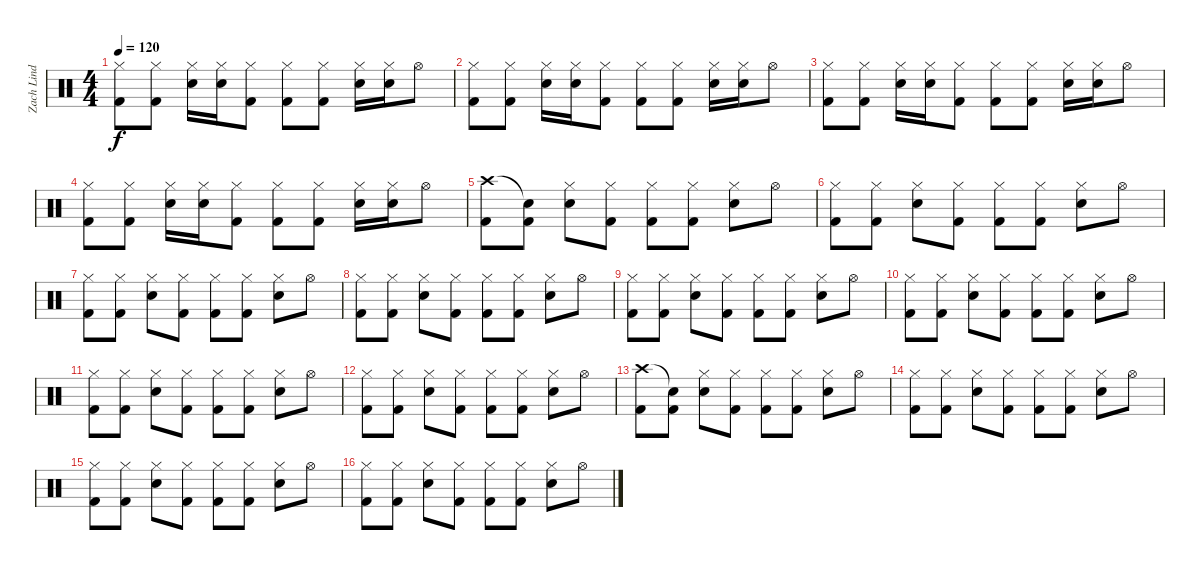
\track ("Zach Lind (Drums)" "Zach Lind ") {instrument percussion}
\staff {score}
\articulation defaults
\ts (4 4)
\tempo 120
\clef neutral
\ks c
("Hi-Hat (closed)" "Kick (hit) 2").8{dy f} ("Hi-Hat (closed)" "Kick (hit) 2").8 ("Hi-Hat (closed)" "Electric Snare (hit)").16 ("Hi-Hat (closed)" "Electric Snare (hit)").16 ("Hi-Hat (closed)" "Kick (hit) 2").8 ("Hi-Hat (closed)" "Kick (hit) 2").8 ("Hi-Hat (closed)" "Kick (hit) 2").8 ("Hi-Hat (closed)" "Electric Snare (hit)").16 ("Hi-Hat (closed)" "Electric Snare (hit)").16 "Hi-Hat (open)".8 |
("Hi-Hat (closed)" "Kick (hit) 2").8 ("Hi-Hat (closed)" "Kick (hit) 2").8 ("Hi-Hat (closed)" "Electric Snare (hit)").16 ("Hi-Hat (closed)" "Electric Snare (hit)").16 ("Hi-Hat (closed)" "Kick (hit) 2").8 ("Hi-Hat (closed)" "Kick (hit) 2").8 ("Hi-Hat (closed)" "Kick (hit) 2").8 ("Hi-Hat (closed)" "Electric Snare (hit)").16 ("Hi-Hat (closed)" "Electric Snare (hit)").16 "Hi-Hat (open)".8 |
("Hi-Hat (closed)" "Kick (hit) 2").8 ("Hi-Hat (closed)" "Kick (hit) 2").8 ("Hi-Hat (closed)" "Electric Snare (hit)").16 ("Hi-Hat (closed)" "Electric Snare (hit)").16 ("Hi-Hat (closed)" "Kick (hit) 2").8 ("Hi-Hat (closed)" "Kick (hit) 2").8 ("Hi-Hat (closed)" "Kick (hit) 2").8 ("Hi-Hat (closed)" "Electric Snare (hit)").16 ("Hi-Hat (closed)" "Electric Snare (hit)").16 "Hi-Hat (open)".8 |
("Hi-Hat (closed)" "Kick (hit) 2").8 ("Hi-Hat (closed)" "Kick (hit) 2").8 ("Hi-Hat (closed)" "Electric Snare (hit)").16 ("Hi-Hat (closed)" "Electric Snare (hit)").16 ("Hi-Hat (closed)" "Kick (hit) 2").8 ("Hi-Hat (closed)" "Kick (hit) 2").8 ("Hi-Hat (closed)" "Kick (hit) 2").8 ("Hi-Hat (closed)" "Electric Snare (hit)").16 ("Hi-Hat (closed)" "Electric Snare (hit)").16 "Hi-Hat (open)".8 |
("Crash high (hit)" "Kick (hit) 2").8 ("Snare (hit)"{t} "Kick (hit) 2").8 ("Hi-Hat (closed)" "Electric Snare (hit)").8 ("Hi-Hat (closed)" "Kick (hit) 2").8 ("Hi-Hat (closed)" "Kick (hit) 2").8 ("Hi-Hat (closed)" "Kick (hit) 2").8 ("Hi-Hat (closed)" "Electric Snare (hit)").8 "Hi-Hat (open)".8 |
("Hi-Hat (closed)" "Kick (hit) 2").8 ("Hi-Hat (closed)" "Kick (hit) 2").8 ("Hi-Hat (closed)" "Electric Snare (hit)").8 ("Hi-Hat (closed)" "Kick (hit) 2").8 ("Hi-Hat (closed)" "Kick (hit) 2").8 ("Hi-Hat (closed)" "Kick (hit) 2").8 ("Hi-Hat (closed)" "Electric Snare (hit)").8 "Hi-Hat (open)".8 |
("Hi-Hat (closed)" "Kick (hit) 2").8 ("Hi-Hat (closed)" "Kick (hit) 2").8 ("Hi-Hat (closed)" "Electric Snare (hit)").8 ("Hi-Hat (closed)" "Kick (hit) 2").8 ("Hi-Hat (closed)" "Kick (hit) 2").8 ("Hi-Hat (closed)" "Kick (hit) 2").8 ("Hi-Hat (closed)" "Electric Snare (hit)").8 "Hi-Hat (open)".8 |
("Hi-Hat (closed)" "Kick (hit) 2").8 ("Hi-Hat (closed)" "Kick (hit) 2").8 ("Hi-Hat (closed)" "Electric Snare (hit)").8 ("Hi-Hat (closed)" "Kick (hit) 2").8 ("Hi-Hat (closed)" "Kick (hit) 2").8 ("Hi-Hat (closed)" "Kick (hit) 2").8 ("Hi-Hat (closed)" "Electric Snare (hit)").8 "Hi-Hat (open)".8 |
("Hi-Hat (closed)" "Kick (hit) 2").8 ("Hi-Hat (closed)" "Kick (hit) 2").8 ("Hi-Hat (closed)" "Electric Snare (hit)").8 ("Hi-Hat (closed)" "Kick (hit) 2").8 ("Hi-Hat (closed)" "Kick (hit) 2").8 ("Hi-Hat (closed)" "Kick (hit) 2").8 ("Hi-Hat (closed)" "Electric Snare (hit)").8 "Hi-Hat (open)".8 |
("Hi-Hat (closed)" "Kick (hit) 2").8 ("Hi-Hat (closed)" "Kick (hit) 2").8 ("Hi-Hat (closed)" "Electric Snare (hit)").8 ("Hi-Hat (closed)" "Kick (hit) 2").8 ("Hi-Hat (closed)" "Kick (hit) 2").8 ("Hi-Hat (closed)" "Kick (hit) 2").8 ("Hi-Hat (closed)" "Electric Snare (hit)").8 "Hi-Hat (open)".8 |
("Hi-Hat (closed)" "Kick (hit) 2").8 ("Hi-Hat (closed)" "Kick (hit) 2").8 ("Hi-Hat (closed)" "Electric Snare (hit)").8 ("Hi-Hat (closed)" "Kick (hit) 2").8 ("Hi-Hat (closed)" "Kick (hit) 2").8 ("Hi-Hat (closed)" "Kick (hit) 2").8 ("Hi-Hat (closed)" "Electric Snare (hit)").8 "Hi-Hat (open)".8 |
("Hi-Hat (closed)" "Kick (hit) 2").8 ("Hi-Hat (closed)" "Kick (hit) 2").8 ("Hi-Hat (closed)" "Electric Snare (hit)").8 ("Hi-Hat (closed)" "Kick (hit) 2").8 ("Hi-Hat (closed)" "Kick (hit) 2").8 ("Hi-Hat (closed)" "Kick (hit) 2").8 ("Hi-Hat (closed)" "Electric Snare (hit)").8 "Hi-Hat (open)".8 |
("Crash high (hit)" "Kick (hit) 2").8 ("Snare (hit)"{t} "Kick (hit) 2").8 ("Hi-Hat (closed)" "Electric Snare (hit)").8 ("Hi-Hat (closed)" "Kick (hit) 2").8 ("Hi-Hat (closed)" "Kick (hit) 2").8 ("Hi-Hat (closed)" "Kick (hit) 2").8 ("Hi-Hat (closed)" "Electric Snare (hit)").8 "Hi-Hat (open)".8 |
("Hi-Hat (closed)" "Kick (hit) 2").8 ("Hi-Hat (closed)" "Kick (hit) 2").8 ("Hi-Hat (closed)" "Electric Snare (hit)").8 ("Hi-Hat (closed)" "Kick (hit) 2").8 ("Hi-Hat (closed)" "Kick (hit) 2").8 ("Hi-Hat (closed)" "Kick (hit) 2").8 ("Hi-Hat (closed)" "Electric Snare (hit)").8 "Hi-Hat (open)".8 |
("Hi-Hat (closed)" "Kick (hit) 2").8 ("Hi-Hat (closed)" "Kick (hit) 2").8 ("Hi-Hat (closed)" "Electric Snare (hit)").8 ("Hi-Hat (closed)" "Kick (hit) 2").8 ("Hi-Hat (closed)" "Kick (hit) 2").8 ("Hi-Hat (closed)" "Kick (hit) 2").8 ("Hi-Hat (closed)" "Electric Snare (hit)").8 "Hi-Hat (open)".8 |
("Hi-Hat (closed)" "Kick (hit) 2").8 ("Hi-Hat (closed)" "Kick (hit) 2").8 ("Hi-Hat (closed)" "Electric Snare (hit)").8 ("Hi-Hat (closed)" "Kick (hit) 2").8 ("Hi-Hat (closed)" "Kick (hit) 2").8 ("Hi-Hat (closed)" "Kick (hit) 2").8 ("Hi-Hat (closed)" "Electric Snare (hit)").8 "Hi-Hat (open)".8
